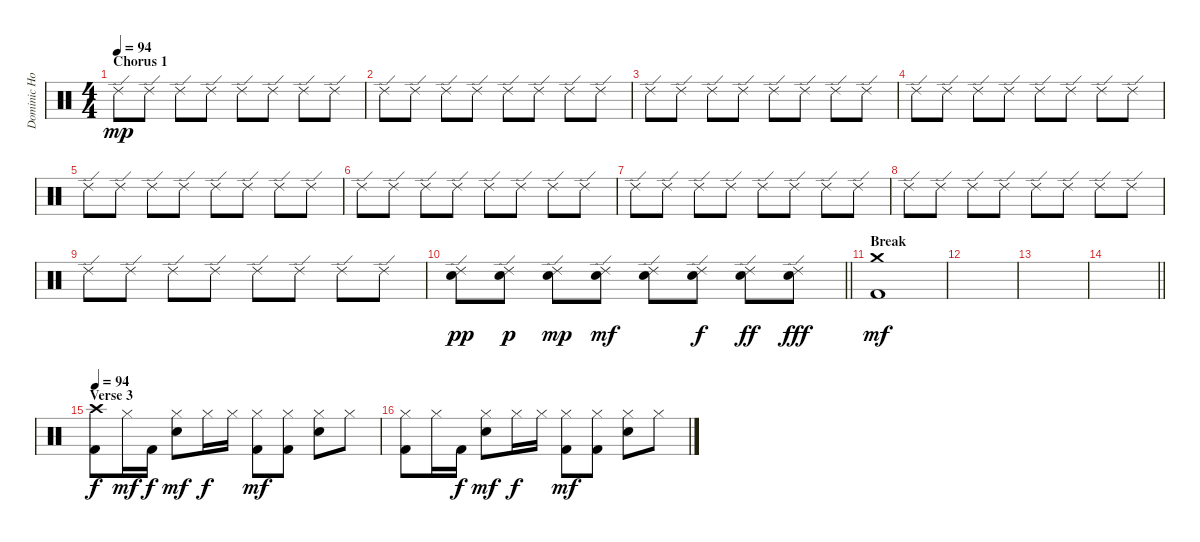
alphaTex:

\track ("Dominic Howard - Drums" "Dominic Ho") {instrument percussion}
\staff {score}
\articulation defaults
\ts (4 4)
\section ("" "Chorus 1")
\tempo 94
\clef neutral
\ks c "Ride (edge) 2".8{dy mp} "Ride (edge) 2".8 "Ride (edge) 2".8 "Ride (edge) 2".8 "Ride (edge) 2".8 "Ride (edge) 2".8 "Ride (edge) 2".8 "Ride (edge) 2".8
|
"Ride (edge) 2".8 "Ride (edge) 2".8 "Ride (edge) 2".8 "Ride (edge) 2".8 "Ride (edge) 2".8 "Ride (edge) 2".8 "Ride (edge) 2".8 "Ride (edge) 2".8 |
"Ride (edge) 2".8 "Ride (edge) 2".8 "Ride (edge) 2".8 "Ride (edge) 2".8 "Ride (edge) 2".8 "Ride (edge) 2".8 "Ride (edge) 2".8 "Ride (edge) 2".8 |
"Ride (edge) 2".8 "Ride (edge) 2".8 "Ride (edge) 2".8 "Ride (edge) 2".8 "Ride (edge) 2".8 "Ride (edge) 2".8 "Ride (edge) 2".8 "Ride (edge) 2".8 |
"Ride (edge) 2".8 "Ride (edge) 2".8 "Ride (edge) 2".8 "Ride (edge) 2".8 "Ride (edge) 2".8 "Ride (edge) 2".8 "Ride (edge) 2".8 "Ride (edge) 2".8 |
"Ride (edge) 2".8 "Ride (edge) 2".8 "Ride (edge) 2".8 "Ride (edge) 2".8 "Ride (edge) 2".8 "Ride (edge) 2".8 "Ride (edge) 2".8 "Ride (edge) 2".8 |
"Ride (edge) 2".8 "Ride (edge) 2".8 "Ride (edge) 2".8 "Ride (edge) 2".8 "Ride (edge) 2".8 "Ride (edge) 2".8 "Ride (edge) 2".8 "Ride (edge) 2".8 |
"Ride (edge) 2".8 "Ride (edge) 2".8 "Ride (edge) 2".8 "Ride (edge) 2".8 "Ride (edge) 2".8 "Ride (edge) 2".8 "Ride (edge) 2".8 "Ride (edge) 2".8 |
"Ride (edge) 2".8 "Ride (edge) 2".8 "Ride (edge) 2".8 "Ride (edge) 2".8 "Ride (edge) 2".8 "Ride (edge) 2".8 "Ride (edge) 2".8 "Ride (edge) 2".8 |
\barLineRight lightlight
("Ride (edge) 2" "Electric Snare (hit)").8{dy pp} ("Ride (edge) 2" "Electric Snare (hit)").8{dy p} ("Ride (edge) 2" "Electric Snare (hit)").8{dy mp} ("Ride (edge) 2" "Electric Snare (hit)").8{dy mf} ("Ride (edge) 2" "Electric Snare (hit)").8 ("Ride (edge) 2" "Electric Snare (hit)").8{dy f} ("Ride (edge) 2" "Electric Snare (hit)").8{dy ff} ("Ride (edge) 2" "Electric Snare (hit)").8{dy fff} |
\section ("" "Break")
("Kick (hit) 2" "Crash medium (hit)").1{dy mf} |
|
|
\barLineRight lightlight
|
\section ("" "Verse 3")
\tempo 94
("Kick (hit) 2" "Crash high (hit)").8{dy f} "Hi-Hat (closed)".16{dy mf} "Kick (hit) 2".16{dy f} ("Hi-Hat (closed)" "Electric Snare (hit)").8{dy mf} "Hi-Hat (closed)".16{dy f} "Hi-Hat (closed)".16 ("Hi-Hat (closed)" "Kick (hit) 2").8{dy mf} ("Hi-Hat (closed)" "Kick (hit) 2").8 ("Hi-Hat (closed)" "Electric Snare (hit)").8 "Hi-Hat (closed)".8 |
("Kick (hit) 2" "Hi-Hat (closed)").8 "Hi-Hat (closed)".16 "Kick (hit) 2".16{dy f} ("Hi-Hat (closed)" "Electric Snare (hit)").8{dy mf} "Hi-Hat (closed)".16{dy f} "Hi-Hat (closed)".16 ("Hi-Hat (closed)" "Kick (hit) 2").8{dy mf} ("Hi-Hat (closed)" "Kick (hit) 2").8 ("Hi-Hat (closed)" "Electric Snare (hit)").8 "Hi-Hat (closed)".8
